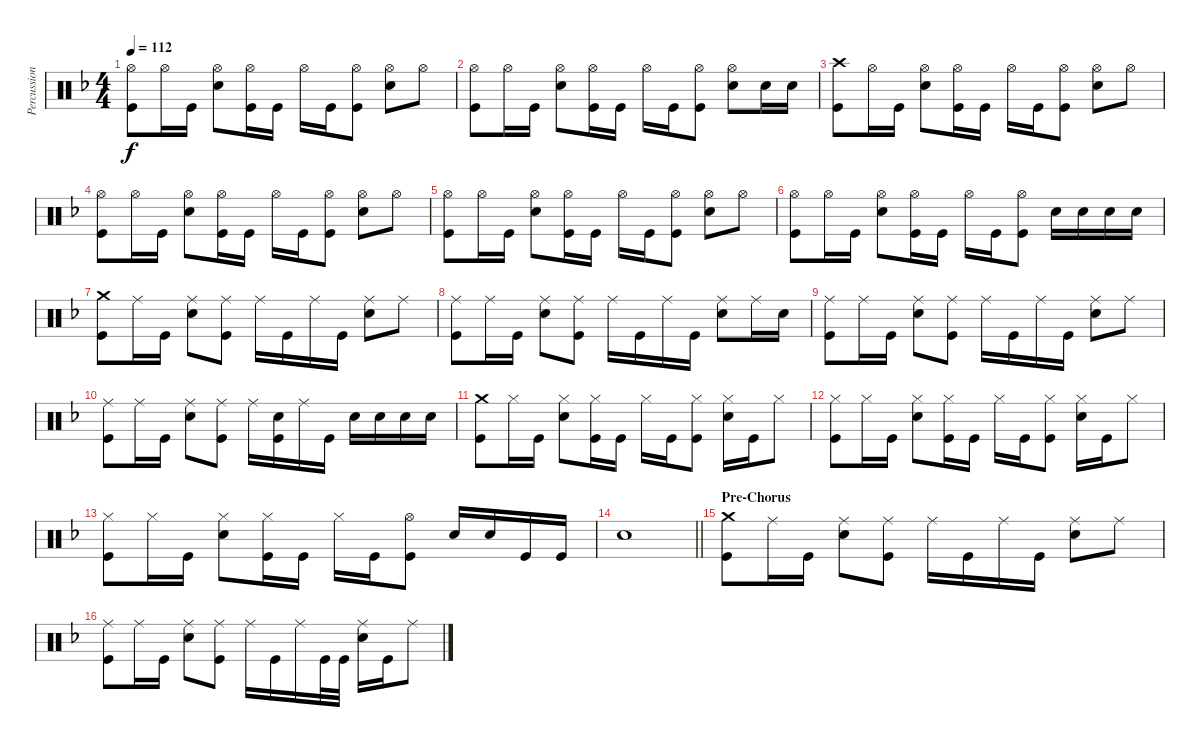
\track ("Percussion" "Percussion") {instrument percussion}
\staff {score}
\articulation defaults
\ts (4 4)
\tempo 112
\clef neutral
\ks f
("Hi-Hat (open)" "Kick (hit)").8{dy f} "Hi-Hat (open)".16 "Kick (hit)".16 ("Hi-Hat (open)" "Electric Snare (hit)").8 ("Hi-Hat (open)" "Kick (hit)").16 "Kick (hit)".16 "Hi-Hat (open)".16 "Kick (hit)".16 ("Hi-Hat (open)" "Kick (hit)").8 ("Hi-Hat (open)" "Electric Snare (hit)").8 "Hi-Hat (open)".8 |
("Hi-Hat (open)" "Kick (hit)").8 "Hi-Hat (open)".16 "Kick (hit)".16 ("Hi-Hat (open)" "Electric Snare (hit)").8 ("Hi-Hat (open)" "Kick (hit)").16 "Kick (hit)".16 "Hi-Hat (open)".16 "Kick (hit)".16 ("Hi-Hat (open)" "Kick (hit)").8 ("Hi-Hat (open)" "Electric Snare (hit)").8 "Electric Snare (hit)".16 "Electric Snare (hit)".16 |
("Crash high (hit)" "Kick (hit)").8 "Hi-Hat (open)".16 "Kick (hit)".16 ("Hi-Hat (open)" "Electric Snare (hit)").8 ("Hi-Hat (open)" "Kick (hit)").16 "Kick (hit)".16 "Hi-Hat (open)".16 "Kick (hit)".16 ("Hi-Hat (open)" "Kick (hit)").8 ("Hi-Hat (open)" "Electric Snare (hit)").8 "Hi-Hat (open)".8 |
("Hi-Hat (open)" "Kick (hit)").8 "Hi-Hat (open)".16 "Kick (hit)".16 ("Hi-Hat (open)" "Electric Snare (hit)").8 ("Hi-Hat (open)" "Kick (hit)").16 "Kick (hit)".16 "Hi-Hat (open)".16 "Kick (hit)".16 ("Hi-Hat (open)" "Kick (hit)").8 ("Hi-Hat (open)" "Electric Snare (hit)").8 "Hi-Hat (open)".8 |
("Hi-Hat (open)" "Kick (hit)").8 "Hi-Hat (open)".16 "Kick (hit)".16 ("Hi-Hat (open)" "Electric Snare (hit)").8 ("Hi-Hat (open)" "Kick (hit)").16 "Kick (hit)".16 "Hi-Hat (open)".16 "Kick (hit)".16 ("Hi-Hat (open)" "Kick (hit)").8 ("Hi-Hat (open)" "Electric Snare (hit)").8 "Hi-Hat (open)".8 |
("Hi-Hat (open)" "Kick (hit)").8 "Hi-Hat (open)".16 "Kick (hit)".16 ("Hi-Hat (open)" "Electric Snare (hit)").8 ("Hi-Hat (open)" "Kick (hit)").16 "Kick (hit)".16 "Hi-Hat (open)".16 "Kick (hit)".16 ("Hi-Hat (open)" "Kick (hit)").8 "Electric Snare (hit)".16 "Electric Snare (hit)".16 "Electric Snare (hit)".16 "Electric Snare (hit)".16 |
("Crash medium (hit)" "Kick (hit)").8 "Ride (middle)".16 "Kick (hit)".16 ("Ride (middle)" "Electric Snare (hit)").8 ("Ride (middle)" "Kick (hit)").8 "Ride (middle)".16 "Kick (hit)".16 "Ride (middle)".16 "Kick (hit)".16 ("Ride (middle)" "Electric Snare (hit)").8 "Ride (middle)".8 |
("Ride (middle)" "Kick (hit)").8 "Ride (middle)".16 "Kick (hit)".16 ("Ride (middle)" "Electric Snare (hit)").8 ("Ride (middle)" "Kick (hit)").8 "Ride (middle)".16 "Kick (hit)".16 "Ride (middle)".16 "Kick (hit)".16 ("Ride (middle)" "Electric Snare (hit)").8 "Ride (middle)".16 "Electric Snare (hit)".16 |
("Ride (middle)" "Kick (hit)").8 "Ride (middle)".16 "Kick (hit)".16 ("Ride (middle)" "Electric Snare (hit)").8 ("Ride (middle)" "Kick (hit)").8 "Ride (middle)".16 "Kick (hit)".16 "Ride (middle)".16 "Kick (hit)".16 ("Ride (middle)" "Electric Snare (hit)").8 "Ride (middle)".8 |
("Ride (middle)" "Kick (hit)").8 "Ride (middle)".16 "Kick (hit)".16 ("Ride (middle)" "Electric Snare (hit)").8 ("Ride (middle)" "Kick (hit)").8 "Ride (middle)".16 ("Electric Snare (hit)" "Kick (hit)").16 "Ride (middle)".16 "Kick (hit)".16 "Electric Snare (hit)".16 "Electric Snare (hit)".16 "Electric Snare (hit)".16 "Electric Snare (hit)".16 |
("Crash medium (hit)" "Kick (hit)").8 "Hi-Hat (closed)".16 "Kick (hit)".16 ("Hi-Hat (closed)" "Electric Snare (hit)").8 ("Hi-Hat (closed)" "Kick (hit)").16 "Kick (hit)".16 "Hi-Hat (closed)".16 "Kick (hit)".16 ("Hi-Hat (closed)" "Kick (hit)").8 ("Hi-Hat (closed)" "Electric Snare (hit)").16 "Kick (hit)".16 "Hi-Hat (closed)".8 |
("Hi-Hat (closed)" "Kick (hit)").8 "Hi-Hat (closed)".16 "Kick (hit)".16 ("Hi-Hat (closed)" "Electric Snare (hit)").8 ("Hi-Hat (closed)" "Kick (hit)").16 "Kick (hit)".16 "Hi-Hat (closed)".16 "Kick (hit)".16 ("Hi-Hat (closed)" "Kick (hit)").8 ("Hi-Hat (closed)" "Electric Snare (hit)").16 "Kick (hit)".16 "Hi-Hat (closed)".8 |
("Hi-Hat (closed)" "Kick (hit)").8 "Hi-Hat (closed)".16 "Kick (hit)".16 ("Hi-Hat (closed)" "Electric Snare (hit)").8 ("Hi-Hat (closed)" "Kick (hit)").16 "Kick (hit)".16 "Hi-Hat (closed)".16 "Kick (hit)".16 ("Hi-Hat (open)" "Kick (hit)").8 "Electric Snare (hit)".16 "Electric Snare (hit)".16 "Kick (hit)".16 "Kick (hit)".16 |
\barLineRight lightlight "Electric Snare (hit)".1
|
\section ("" "Pre-Chorus")
("Crash medium (hit)" "Kick (hit)").8 "Ride (middle)".16 "Kick (hit)".16 ("Ride (middle)" "Electric Snare (hit)").8 ("Ride (middle)" "Kick (hit)").8 "Ride (middle)".16 "Kick (hit)".16 "Ride (middle)".16 "Kick (hit)".16 ("Ride (middle)" "Electric Snare (hit)").8 "Ride (middle)".8 |
("Ride (middle)" "Kick (hit)").8 "Ride (middle)".16 "Kick (hit)".16 ("Ride (middle)" "Electric Snare (hit)").8 ("Ride (middle)" "Kick (hit)").8 "Ride (middle)".16 "Kick (hit)".16 "Ride (middle)".16 "Kick (hit)".32 "Kick (hit)".32 ("Ride (middle)" "Electric Snare (hit)").16 "Kick (hit)".16 "Ride (middle)".8
